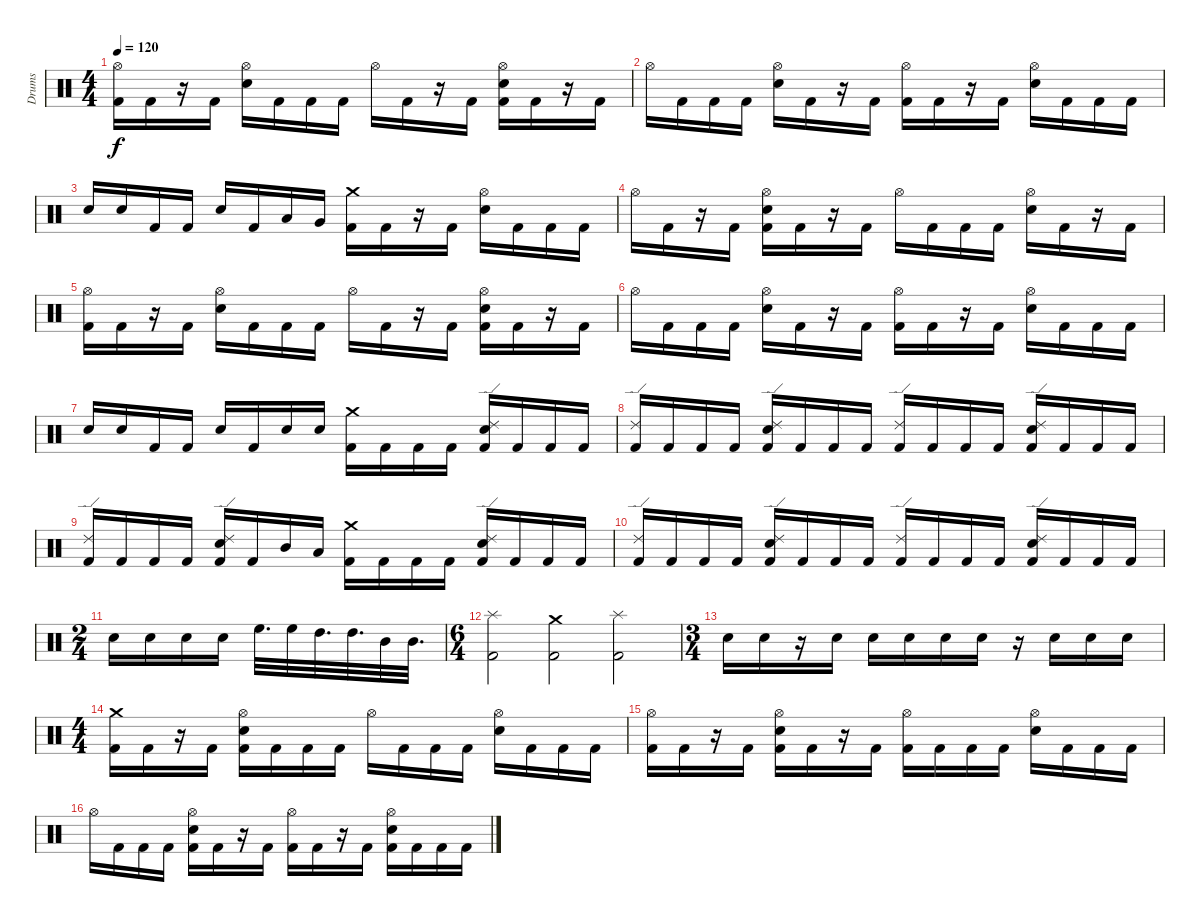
\track ("Drums" "Drums") {instrument percussion}
\staff {score}
\articulation defaults
\ts (4 4)
\tempo 120
\clef neutral
\ks c
("Hi-Hat (open)" "Kick (hit) 2").16{dy f} "Kick (hit) 2".16 r.16 "Kick (hit) 2".16 ("Electric Snare (hit)" "Hi-Hat (open)").16 "Kick (hit) 2".16 "Kick (hit) 2".16 "Kick (hit) 2".16 "Hi-Hat (open)".16 "Kick (hit) 2".16 r.16 "Kick (hit) 2".16 ("Electric Snare (hit)" "Kick (hit) 2" "Hi-Hat (open)").16 "Kick (hit) 2".16 r.16 "Kick (hit) 2".16 |
"Hi-Hat (open)".16 "Kick (hit) 2".16 "Kick (hit) 2".16 "Kick (hit) 2".16 ("Electric Snare (hit)" "Hi-Hat (open)").16 "Kick (hit) 2".16 r.16 "Kick (hit) 2".16 ("Hi-Hat (open)" "Kick (hit) 2").16 "Kick (hit) 2".16 r.16 "Kick (hit) 2".16 ("Hi-Hat (open)" "Electric Snare (hit)").16 "Kick (hit) 2".16 "Kick (hit) 2".16 "Kick (hit) 2".16 |
"Electric Snare (hit)".16 "Electric Snare (hit)".16 "Kick (hit) 2".16 "Kick (hit) 2".16 "Electric Snare (hit)".16 "Kick (hit) 2".16 "Low Tom (hit)".16 "Very Low Tom (hit)".16 ("Kick (hit) 2" "Crash medium (hit)").16 "Kick (hit) 2".16 r.16 "Kick (hit) 2".16 ("Hi-Hat (open)" "Electric Snare (hit)").16 "Kick (hit) 2".16 "Kick (hit) 2".16 "Kick (hit) 2".16 |
"Hi-Hat (open)".16 "Kick (hit) 2".16 r.16 "Kick (hit) 2".16 ("Kick (hit) 2" "Hi-Hat (open)" "Electric Snare (hit)").16 "Kick (hit) 2".16 r.16 "Kick (hit) 2".16 "Hi-Hat (open)".16 "Kick (hit) 2".16 "Kick (hit) 2".16 "Kick (hit) 2".16 ("Electric Snare (hit)" "Hi-Hat (open)").16 "Kick (hit) 2".16 r.16 "Kick (hit) 2".16 |
("Hi-Hat (open)" "Kick (hit) 2").16 "Kick (hit) 2".16 r.16 "Kick (hit) 2".16 ("Electric Snare (hit)" "Hi-Hat (open)").16 "Kick (hit) 2".16 "Kick (hit) 2".16 "Kick (hit) 2".16 "Hi-Hat (open)".16 "Kick (hit) 2".16 r.16 "Kick (hit) 2".16 ("Electric Snare (hit)" "Kick (hit) 2" "Hi-Hat (open)").16 "Kick (hit) 2".16 r.16 "Kick (hit) 2".16 |
"Hi-Hat (open)".16 "Kick (hit) 2".16 "Kick (hit) 2".16 "Kick (hit) 2".16 ("Electric Snare (hit)" "Hi-Hat (open)").16 "Kick (hit) 2".16 r.16 "Kick (hit) 2".16 ("Hi-Hat (open)" "Kick (hit) 2").16 "Kick (hit) 2".16 r.16 "Kick (hit) 2".16 ("Hi-Hat (open)" "Electric Snare (hit)").16 "Kick (hit) 2".16 "Kick (hit) 2".16 "Kick (hit) 2".16 |
"Electric Snare (hit)".16 "Electric Snare (hit)".16 "Kick (hit) 2".16 "Kick (hit) 2".16 "Electric Snare (hit)".16 "Kick (hit) 2".16 "Electric Snare (hit)".16 "Electric Snare (hit)".16 ("Kick (hit) 2" "Crash medium (hit)").16 "Kick (hit) 2".16 "Kick (hit) 2".16 "Kick (hit) 2".16 ("Ride (edge) 2" "Electric Snare (hit)" "Kick (hit) 2").16 "Kick (hit) 2".16 "Kick (hit) 2".16 "Kick (hit) 2".16 |
("Ride (edge) 2" "Kick (hit) 2").16 "Kick (hit) 2".16 "Kick (hit) 2".16 "Kick (hit) 2".16 ("Ride (edge) 2" "Electric Snare (hit)" "Kick (hit) 2").16 "Kick (hit) 2".16 "Kick (hit) 2".16 "Kick (hit) 2".16 ("Ride (edge) 2" "Kick (hit) 2").16 "Kick (hit) 2".16 "Kick (hit) 2".16 "Kick (hit) 2".16 ("Ride (edge) 2" "Electric Snare (hit)" "Kick (hit) 2").16 "Kick (hit) 2".16 "Kick (hit) 2".16 "Kick (hit) 2".16 |
("Ride (edge) 2" "Kick (hit) 2").16 "Kick (hit) 2".16 "Kick (hit) 2".16 "Kick (hit) 2".16 ("Ride (edge) 2" "Electric Snare (hit)" "Kick (hit) 2").16 "Kick (hit) 2".16 "Mid Tom (hit)".16 "Low Tom (hit)".16 ("Kick (hit) 2" "Crash medium (hit)").16 "Kick (hit) 2".16 "Kick (hit) 2".16 "Kick (hit) 2".16 ("Ride (edge) 2" "Electric Snare (hit)" "Kick (hit) 2").16 "Kick (hit) 2".16 "Kick (hit) 2".16 "Kick (hit) 2".16 |
("Ride (edge) 2" "Kick (hit) 2").16 "Kick (hit) 2".16 "Kick (hit) 2".16 "Kick (hit) 2".16 ("Ride (edge) 2" "Electric Snare (hit)" "Kick (hit) 2").16 "Kick (hit) 2".16 "Kick (hit) 2".16 "Kick (hit) 2".16 ("Ride (edge) 2" "Kick (hit) 2").16 "Kick (hit) 2".16 "Kick (hit) 2".16 "Kick (hit) 2".16 ("Ride (edge) 2" "Electric Snare (hit)" "Kick (hit) 2").16 "Kick (hit) 2".16 "Kick (hit) 2".16 "Kick (hit) 2".16 |
\ts (2 4)
"Electric Snare (hit)".16 "Electric Snare (hit)".16 "Electric Snare (hit)".16 "Electric Snare (hit)".16 "High Floor Tom (hit)".32{d} "High Floor Tom (hit)".32 "High Tom (hit)".32{d} "High Tom (hit)".32{d} "Mid Tom (hit)".32 "Mid Tom (hit)".32{d} |
\ts (6 4)
("Splash (hit)" "Kick (hit) 2").2 ("Crash medium (hit)" "Kick (hit) 2").2 ("Splash (hit)" "Kick (hit) 2").2 |
\ts (3 4)
"Electric Snare (hit)".16 "Electric Snare (hit)".16 r.16 "Electric Snare (hit)".16 "Electric Snare (hit)".16 "Electric Snare (hit)".16 "Electric Snare (hit)".16 "Electric Snare (hit)".16 r.16 "Electric Snare (hit)".16 "Electric Snare (hit)".16 "Electric Snare (hit)".16 |
\ts (4 4)
("Crash medium (hit)" "Kick (hit) 2").16 "Kick (hit) 2".16 r.16 "Kick (hit) 2".16 ("Electric Snare (hit)" "Hi-Hat (open)" "Kick (hit) 2").16 "Kick (hit) 2".16 "Kick (hit) 2".16 "Kick (hit) 2".16 "Hi-Hat (open)".16 "Kick (hit) 2".16 "Kick (hit) 2".16 "Kick (hit) 2".16 ("Electric Snare (hit)" "Hi-Hat (open)").16 "Kick (hit) 2".16 "Kick (hit) 2".16 "Kick (hit) 2".16 |
("Hi-Hat (open)" "Kick (hit) 2").16 "Kick (hit) 2".16 r.16 "Kick (hit) 2".16 ("Electric Snare (hit)" "Hi-Hat (open)" "Kick (hit) 2").16 "Kick (hit) 2".16 r.16 "Kick (hit) 2".16 ("Hi-Hat (open)" "Kick (hit) 2").16 "Kick (hit) 2".16 "Kick (hit) 2".16 "Kick (hit) 2".16 ("Electric Snare (hit)" "Hi-Hat (open)").16 "Kick (hit) 2".16 "Kick (hit) 2".16 "Kick (hit) 2".16 |
"Hi-Hat (open)".16 "Kick (hit) 2".16 "Kick (hit) 2".16 "Kick (hit) 2".16 ("Electric Snare (hit)" "Hi-Hat (open)" "Kick (hit) 2").16 "Kick (hit) 2".16 r.16 "Kick (hit) 2".16 ("Hi-Hat (open)" "Kick (hit) 2").16 "Kick (hit) 2".16 r.16 "Kick (hit) 2".16 ("Electric Snare (hit)" "Hi-Hat (open)" "Kick (hit) 2").16 "Kick (hit) 2".16 "Kick (hit) 2".16 "Kick (hit) 2".16
